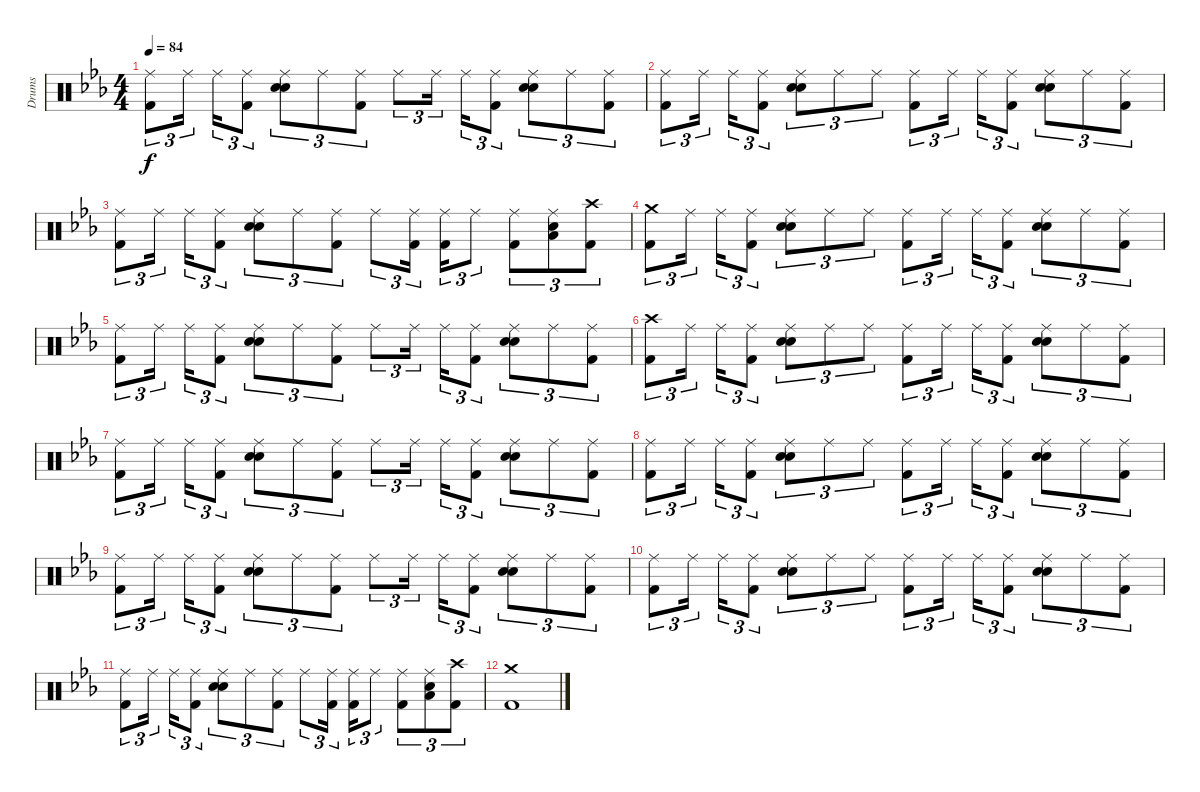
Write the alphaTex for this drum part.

\track ("Drums" "Drums") {instrument percussion}
\staff {score}
\articulation defaults
\ts (4 4)
\tempo 84
\clef neutral
\ks eb
("Ride (middle)" "Kick (hit) 2").8{tu (3 2) dy f} "Ride (middle)".16{tu (3 2)} "Ride (middle)".16{tu (3 2)} ("Ride (middle)" "Kick (hit) 2").8{tu (3 2)} ("Ride (middle)" "Hand Clap (hit)" "Electric Snare (hit)").8{tu (3 2)} "Ride (middle)".8{tu (3 2)} ("Ride (middle)" "Kick (hit) 2").8{tu (3 2)} "Ride (middle)".8{tu (3 2)} "Ride (middle)".16{tu (3 2)} "Ride (middle)".16{tu (3 2)} ("Ride (middle)" "Kick (hit) 2").8{tu (3 2)} ("Ride (middle)" "Hand Clap (hit)" "Electric Snare (hit)").8{tu (3 2)} "Ride (middle)".8{tu (3 2)} ("Ride (middle)" "Kick (hit) 2").8{tu (3 2)} |
("Ride (middle)" "Kick (hit) 2").8{tu (3 2)} "Ride (middle)".16{tu (3 2)} "Ride (middle)".16{tu (3 2)} ("Ride (middle)" "Kick (hit) 2").8{tu (3 2)} ("Ride (middle)" "Hand Clap (hit)" "Electric Snare (hit)").8{tu (3 2)} "Ride (middle)".8{tu (3 2)} "Ride (middle)".8{tu (3 2)} ("Ride (middle)" "Kick (hit) 2").8{tu (3 2)} "Ride (middle)".16{tu (3 2)} "Ride (middle)".16{tu (3 2)} ("Ride (middle)" "Kick (hit) 2").8{tu (3 2)} ("Ride (middle)" "Hand Clap (hit)" "Electric Snare (hit)").8{tu (3 2)} "Ride (middle)".8{tu (3 2)} ("Ride (middle)" "Kick (hit) 2").8{tu (3 2)} |
("Ride (middle)" "Kick (hit) 2").8{tu (3 2)} "Ride (middle)".16{tu (3 2)} "Ride (middle)".16{tu (3 2)} ("Ride (middle)" "Kick (hit) 2").8{tu (3 2)} ("Ride (middle)" "Hand Clap (hit)" "Electric Snare (hit)").8{tu (3 2)} "Ride (middle)".8{tu (3 2)} ("Ride (middle)" "Kick (hit) 2").8{tu (3 2)} "Ride (middle)".8{tu (3 2)} ("Ride (middle)" "Kick (hit) 2").16{tu (3 2)} ("Ride (middle)" "Kick (hit) 2").16{tu (3 2)} "Ride (middle)".8{tu (3 2)} ("Ride (middle)" "Kick (hit) 2").8{tu (3 2)} ("Ride (middle)" "Low Tom (hit)" "Electric Snare (hit)").8{tu (3 2)} ("Crash high (hit)" "Kick (hit) 2").8{tu (3 2)} |
("Crash medium (hit)" "Kick (hit) 2").8{tu (3 2)} "Ride (middle)".16{tu (3 2)} "Ride (middle)".16{tu (3 2)} ("Ride (middle)" "Kick (hit) 2").8{tu (3 2)} ("Ride (middle)" "Hand Clap (hit)" "Electric Snare (hit)").8{tu (3 2)} "Ride (middle)".8{tu (3 2)} "Ride (middle)".8{tu (3 2)} ("Ride (middle)" "Kick (hit) 2").8{tu (3 2)} "Ride (middle)".16{tu (3 2)} "Ride (middle)".16{tu (3 2)} ("Ride (middle)" "Kick (hit) 2").8{tu (3 2)} ("Ride (middle)" "Hand Clap (hit)" "Electric Snare (hit)").8{tu (3 2)} "Ride (middle)".8{tu (3 2)} ("Ride (middle)" "Kick (hit) 2").8{tu (3 2)} |
("Ride (middle)" "Kick (hit) 2").8{tu (3 2)} "Ride (middle)".16{tu (3 2)} "Ride (middle)".16{tu (3 2)} ("Ride (middle)" "Kick (hit) 2").8{tu (3 2)} ("Ride (middle)" "Hand Clap (hit)" "Electric Snare (hit)").8{tu (3 2)} "Ride (middle)".8{tu (3 2)} ("Ride (middle)" "Kick (hit) 2").8{tu (3 2)} "Ride (middle)".8{tu (3 2)} "Ride (middle)".16{tu (3 2)} "Ride (middle)".16{tu (3 2)} ("Ride (middle)" "Kick (hit) 2").8{tu (3 2)} ("Ride (middle)" "Hand Clap (hit)" "Electric Snare (hit)").8{tu (3 2)} "Ride (middle)".8{tu (3 2)} ("Ride (middle)" "Kick (hit) 2").8{tu (3 2)} |
("Crash high (hit)" "Kick (hit) 2").8{tu (3 2)} "Ride (middle)".16{tu (3 2)} "Ride (middle)".16{tu (3 2)} ("Ride (middle)" "Kick (hit) 2").8{tu (3 2)} ("Ride (middle)" "Hand Clap (hit)" "Electric Snare (hit)").8{tu (3 2)} "Ride (middle)".8{tu (3 2)} "Ride (middle)".8{tu (3 2)} ("Ride (middle)" "Kick (hit) 2").8{tu (3 2)} "Ride (middle)".16{tu (3 2)} "Ride (middle)".16{tu (3 2)} ("Ride (middle)" "Kick (hit) 2").8{tu (3 2)} ("Ride (middle)" "Hand Clap (hit)" "Electric Snare (hit)").8{tu (3 2)} "Ride (middle)".8{tu (3 2)} ("Ride (middle)" "Kick (hit) 2").8{tu (3 2)} |
("Ride (middle)" "Kick (hit) 2").8{tu (3 2)} "Ride (middle)".16{tu (3 2)} "Ride (middle)".16{tu (3 2)} ("Ride (middle)" "Kick (hit) 2").8{tu (3 2)} ("Ride (middle)" "Hand Clap (hit)" "Electric Snare (hit)").8{tu (3 2)} "Ride (middle)".8{tu (3 2)} ("Ride (middle)" "Kick (hit) 2").8{tu (3 2)} "Ride (middle)".8{tu (3 2)} "Ride (middle)".16{tu (3 2)} "Ride (middle)".16{tu (3 2)} ("Ride (middle)" "Kick (hit) 2").8{tu (3 2)} ("Ride (middle)" "Hand Clap (hit)" "Electric Snare (hit)").8{tu (3 2)} "Ride (middle)".8{tu (3 2)} ("Ride (middle)" "Kick (hit) 2").8{tu (3 2)} |
("Ride (middle)" "Kick (hit) 2").8{tu (3 2)} "Ride (middle)".16{tu (3 2)} "Ride (middle)".16{tu (3 2)} ("Ride (middle)" "Kick (hit) 2").8{tu (3 2)} ("Ride (middle)" "Hand Clap (hit)" "Electric Snare (hit)").8{tu (3 2)} "Ride (middle)".8{tu (3 2)} "Ride (middle)".8{tu (3 2)} ("Ride (middle)" "Kick (hit) 2").8{tu (3 2)} "Ride (middle)".16{tu (3 2)} "Ride (middle)".16{tu (3 2)} ("Ride (middle)" "Kick (hit) 2").8{tu (3 2)} ("Ride (middle)" "Hand Clap (hit)" "Electric Snare (hit)").8{tu (3 2)} "Ride (middle)".8{tu (3 2)} ("Ride (middle)" "Kick (hit) 2").8{tu (3 2)} |
("Ride (middle)" "Kick (hit) 2").8{tu (3 2)} "Ride (middle)".16{tu (3 2)} "Ride (middle)".16{tu (3 2)} ("Ride (middle)" "Kick (hit) 2").8{tu (3 2)} ("Ride (middle)" "Hand Clap (hit)" "Electric Snare (hit)").8{tu (3 2)} "Ride (middle)".8{tu (3 2)} ("Ride (middle)" "Kick (hit) 2").8{tu (3 2)} "Ride (middle)".8{tu (3 2)} "Ride (middle)".16{tu (3 2)} "Ride (middle)".16{tu (3 2)} ("Ride (middle)" "Kick (hit) 2").8{tu (3 2)} ("Ride (middle)" "Hand Clap (hit)" "Electric Snare (hit)").8{tu (3 2)} "Ride (middle)".8{tu (3 2)} ("Ride (middle)" "Kick (hit) 2").8{tu (3 2)} |
("Ride (middle)" "Kick (hit) 2").8{tu (3 2)} "Ride (middle)".16{tu (3 2)} "Ride (middle)".16{tu (3 2)} ("Ride (middle)" "Kick (hit) 2").8{tu (3 2)} ("Ride (middle)" "Hand Clap (hit)" "Electric Snare (hit)").8{tu (3 2)} "Ride (middle)".8{tu (3 2)} "Ride (middle)".8{tu (3 2)} ("Ride (middle)" "Kick (hit) 2").8{tu (3 2)} "Ride (middle)".16{tu (3 2)} "Ride (middle)".16{tu (3 2)} ("Ride (middle)" "Kick (hit) 2").8{tu (3 2)} ("Ride (middle)" "Hand Clap (hit)" "Electric Snare (hit)").8{tu (3 2)} "Ride (middle)".8{tu (3 2)} ("Ride (middle)" "Kick (hit) 2").8{tu (3 2)} |
("Ride (middle)" "Kick (hit) 2").8{tu (3 2)} "Ride (middle)".16{tu (3 2)} "Ride (middle)".16{tu (3 2)} ("Ride (middle)" "Kick (hit) 2").8{tu (3 2)} ("Ride (middle)" "Hand Clap (hit)" "Electric Snare (hit)").8{tu (3 2)} "Ride (middle)".8{tu (3 2)} ("Ride (middle)" "Kick (hit) 2").8{tu (3 2)} "Ride (middle)".8{tu (3 2)} ("Ride (middle)" "Kick (hit) 2").16{tu (3 2)} ("Ride (middle)" "Kick (hit) 2").16{tu (3 2)} "Ride (middle)".8{tu (3 2)} ("Ride (middle)" "Kick (hit) 2").8{tu (3 2)} ("Ride (middle)" "Low Tom (hit)" "Electric Snare (hit)").8{tu (3 2)} ("Crash high (hit)" "Kick (hit) 2").8{tu (3 2)} |
("Crash medium (hit)" "Kick (hit) 2").1
